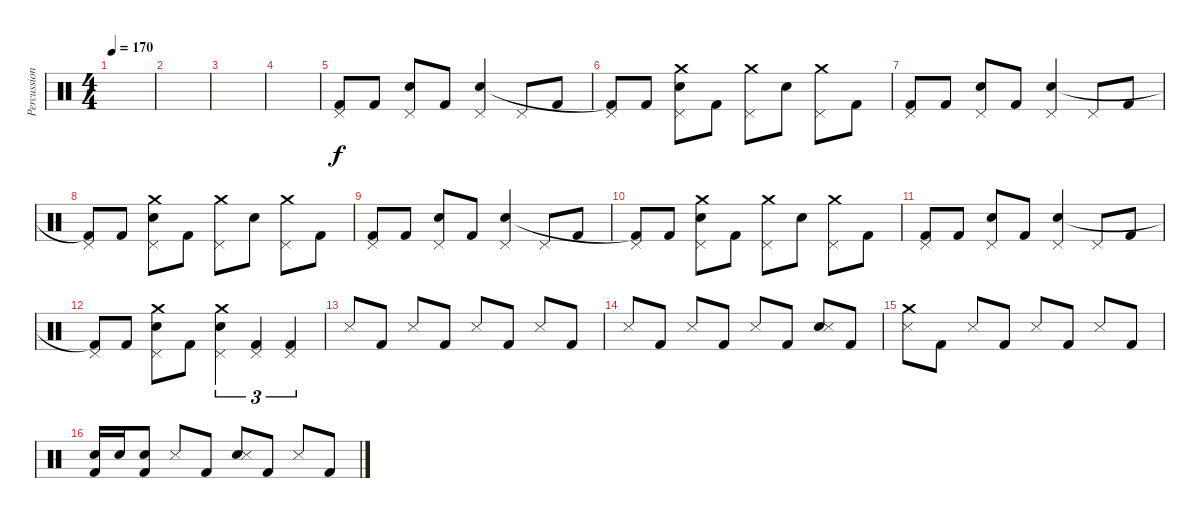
\track ("Percussion" "Percussion") {instrument percussion}
\staff {score}
\articulation defaults
\ts (4 4)
\tempo 170
\clef neutral
\ks c
|
|
|
|
("Pedal Hi-Hat (hit)" "Kick (hit) 2").8 "Kick (hit) 2".8 ("Pedal Hi-Hat (hit)" "Electric Snare (hit)").8 "Kick (hit) 2".8 ("Pedal Hi-Hat (hit)" "Electric Snare (hit)").4 "Pedal Hi-Hat (hit)".8 "Kick (hit) 2".8 |
("Pedal Hi-Hat (hit)" "Kick (hit) 2"{t}).8 "Kick (hit) 2".8 ("Pedal Hi-Hat (hit)" "Electric Snare (hit)" "Crash medium (hit)").8 "Kick (hit) 2".8 ("Pedal Hi-Hat (hit)" "Crash medium (hit)").8 "Electric Snare (hit)".8 ("Pedal Hi-Hat (hit)" "Crash medium (hit)").8 "Kick (hit) 2".8 |
("Pedal Hi-Hat (hit)" "Kick (hit) 2").8 "Kick (hit) 2".8 ("Pedal Hi-Hat (hit)" "Electric Snare (hit)").8 "Kick (hit) 2".8 ("Pedal Hi-Hat (hit)" "Electric Snare (hit)").4 "Pedal Hi-Hat (hit)".8 "Kick (hit) 2".8 |
("Pedal Hi-Hat (hit)" "Kick (hit) 2"{t}).8 "Kick (hit) 2".8 ("Pedal Hi-Hat (hit)" "Electric Snare (hit)" "Crash medium (hit)").8 "Kick (hit) 2".8 ("Pedal Hi-Hat (hit)" "Crash medium (hit)").8 "Electric Snare (hit)".8 ("Pedal Hi-Hat (hit)" "Crash medium (hit)").8 "Kick (hit) 2".8 |
("Pedal Hi-Hat (hit)" "Kick (hit) 2").8 "Kick (hit) 2".8 ("Pedal Hi-Hat (hit)" "Electric Snare (hit)").8 "Kick (hit) 2".8 ("Pedal Hi-Hat (hit)" "Electric Snare (hit)").4 "Pedal Hi-Hat (hit)".8 "Kick (hit) 2".8 |
("Pedal Hi-Hat (hit)" "Kick (hit) 2"{t}).8 "Kick (hit) 2".8 ("Pedal Hi-Hat (hit)" "Electric Snare (hit)" "Crash medium (hit)").8 "Kick (hit) 2".8 ("Pedal Hi-Hat (hit)" "Crash medium (hit)").8 "Electric Snare (hit)".8 ("Pedal Hi-Hat (hit)" "Crash medium (hit)").8 "Kick (hit) 2".8 |
("Pedal Hi-Hat (hit)" "Kick (hit) 2").8 "Kick (hit) 2".8 ("Pedal Hi-Hat (hit)" "Electric Snare (hit)").8 "Kick (hit) 2".8 ("Pedal Hi-Hat (hit)" "Electric Snare (hit)").4 "Pedal Hi-Hat (hit)".8 "Kick (hit) 2".8 |
("Pedal Hi-Hat (hit)" "Kick (hit) 2"{t}).8 "Kick (hit) 2".8 ("Pedal Hi-Hat (hit)" "Electric Snare (hit)" "Crash medium (hit)").8 "Kick (hit) 2".8 ("Pedal Hi-Hat (hit)" "Electric Snare (hit)" "Crash medium (hit)").4{tu (3 2)} ("Pedal Hi-Hat (hit)" "Kick (hit) 2").4{tu (3 2)} ("Pedal Hi-Hat (hit)" "Kick (hit) 2").4{tu (3 2)} |
"Metronome (hit)".8 "Kick (hit) 2".8 "Metronome (hit)".8 "Kick (hit) 2".8 "Metronome (hit)".8 "Kick (hit) 2".8 "Metronome (hit)".8 "Kick (hit) 2".8 |
"Metronome (hit)".8 "Kick (hit) 2".8 "Metronome (hit)".8 "Kick (hit) 2".8 "Metronome (hit)".8 "Kick (hit) 2".8 ("Electric Snare (hit)" "Metronome (hit)").8 "Kick (hit) 2".8 |
("Crash medium (hit)" "Metronome (hit)").8 "Kick (hit) 2".8 "Metronome (hit)".8 "Kick (hit) 2".8 "Metronome (hit)".8 "Kick (hit) 2".8 "Metronome (hit)".8 "Kick (hit) 2".8 |
("Electric Snare (hit)" "Kick (hit) 2").16 "Electric Snare (hit)".16 ("Electric Snare (hit)" "Kick (hit) 2").8 "Metronome (hit)".8 "Kick (hit) 2".8 ("Electric Snare (hit)" "Metronome (hit)").8 "Kick (hit) 2".8 "Metronome (hit)".8 "Kick (hit) 2".8
